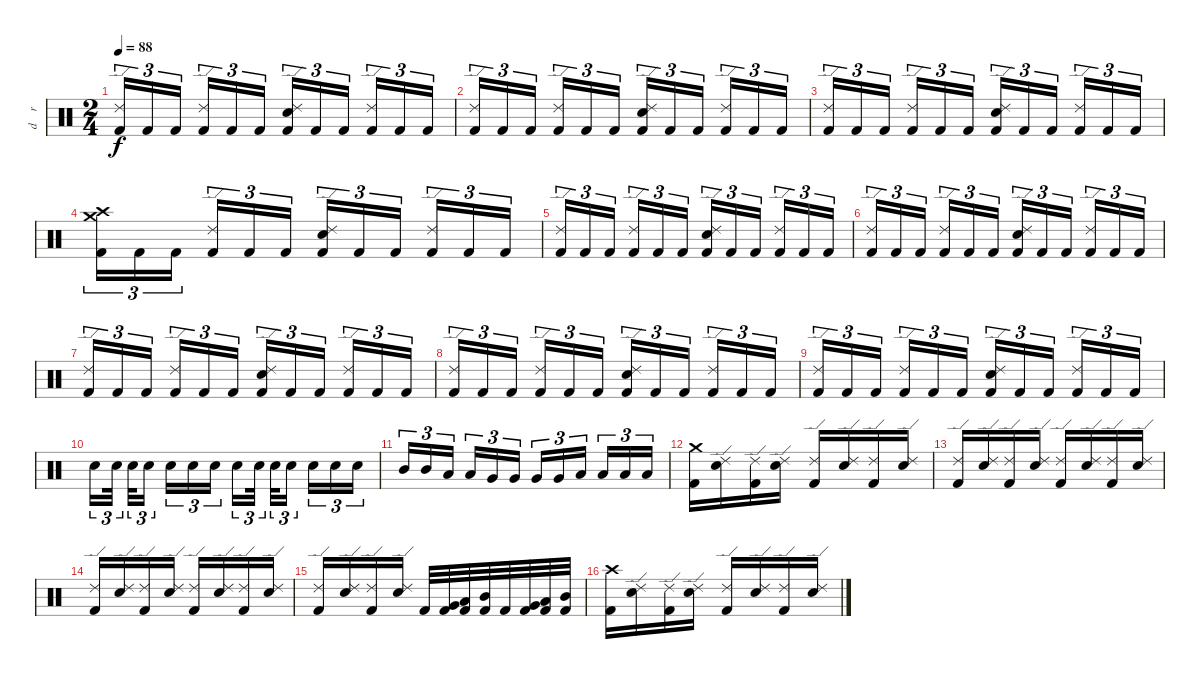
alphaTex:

\track ("d    r     u    m    s" "d    r    ") {instrument percussion}
\staff {score}
\articulation defaults
\ts (2 4)
\tempo 88
\clef neutral
\ks c
("Ride (edge) 2" "Kick (hit) 2").16{tu (3 2) dy f} "Kick (hit) 2".16{tu (3 2)} "Kick (hit) 2".16{tu (3 2) beam splitsecondary} ("Ride (edge) 2" "Kick (hit) 2").16{tu (3 2)} "Kick (hit) 2".16{tu (3 2)} "Kick (hit) 2".16{tu (3 2)} ("Ride (edge) 2" "Electric Snare (hit)" "Kick (hit) 2").16{tu (3 2)} "Kick (hit) 2".16{tu (3 2)} "Kick (hit) 2".16{tu (3 2) beam splitsecondary} ("Ride (edge) 2" "Kick (hit) 2").16{tu (3 2)} "Kick (hit) 2".16{tu (3 2)} "Kick (hit) 2".16{tu (3 2)} |
("Ride (edge) 2" "Kick (hit) 2").16{tu (3 2)} "Kick (hit) 2".16{tu (3 2)} "Kick (hit) 2".16{tu (3 2) beam splitsecondary} ("Ride (edge) 2" "Kick (hit) 2").16{tu (3 2)} "Kick (hit) 2".16{tu (3 2)} "Kick (hit) 2".16{tu (3 2)} ("Ride (edge) 2" "Electric Snare (hit)" "Kick (hit) 2").16{tu (3 2)} "Kick (hit) 2".16{tu (3 2)} "Kick (hit) 2".16{tu (3 2) beam splitsecondary} ("Ride (edge) 2" "Kick (hit) 2").16{tu (3 2)} "Kick (hit) 2".16{tu (3 2)} "Kick (hit) 2".16{tu (3 2)} |
("Ride (edge) 2" "Kick (hit) 2").16{tu (3 2)} "Kick (hit) 2".16{tu (3 2)} "Kick (hit) 2".16{tu (3 2) beam splitsecondary} ("Ride (edge) 2" "Kick (hit) 2").16{tu (3 2)} "Kick (hit) 2".16{tu (3 2)} "Kick (hit) 2".16{tu (3 2)} ("Ride (edge) 2" "Electric Snare (hit)" "Kick (hit) 2").16{tu (3 2)} "Kick (hit) 2".16{tu (3 2)} "Kick (hit) 2".16{tu (3 2) beam splitsecondary} ("Ride (edge) 2" "Kick (hit) 2").16{tu (3 2)} "Kick (hit) 2".16{tu (3 2)} "Kick (hit) 2".16{tu (3 2)} |
("Crash high (hit)" "Crash medium (hit)" "Kick (hit) 2").16{tu (3 2)} "Kick (hit) 2".16{tu (3 2)} "Kick (hit) 2".16{tu (3 2) beam splitsecondary} ("Ride (edge) 2" "Kick (hit) 2").16{tu (3 2)} "Kick (hit) 2".16{tu (3 2)} "Kick (hit) 2".16{tu (3 2)} ("Ride (edge) 2" "Electric Snare (hit)" "Kick (hit) 2").16{tu (3 2)} "Kick (hit) 2".16{tu (3 2)} "Kick (hit) 2".16{tu (3 2) beam splitsecondary} ("Ride (edge) 2" "Kick (hit) 2").16{tu (3 2)} "Kick (hit) 2".16{tu (3 2)} "Kick (hit) 2".16{tu (3 2)} |
("Ride (edge) 2" "Kick (hit) 2").16{tu (3 2)} "Kick (hit) 2".16{tu (3 2)} "Kick (hit) 2".16{tu (3 2) beam splitsecondary} ("Ride (edge) 2" "Kick (hit) 2").16{tu (3 2)} "Kick (hit) 2".16{tu (3 2)} "Kick (hit) 2".16{tu (3 2)} ("Ride (edge) 2" "Electric Snare (hit)" "Kick (hit) 2").16{tu (3 2)} "Kick (hit) 2".16{tu (3 2)} "Kick (hit) 2".16{tu (3 2) beam splitsecondary} ("Ride (edge) 2" "Kick (hit) 2").16{tu (3 2)} "Kick (hit) 2".16{tu (3 2)} "Kick (hit) 2".16{tu (3 2)} |
("Ride (edge) 2" "Kick (hit) 2").16{tu (3 2)} "Kick (hit) 2".16{tu (3 2)} "Kick (hit) 2".16{tu (3 2) beam splitsecondary} ("Ride (edge) 2" "Kick (hit) 2").16{tu (3 2)} "Kick (hit) 2".16{tu (3 2)} "Kick (hit) 2".16{tu (3 2)} ("Ride (edge) 2" "Electric Snare (hit)" "Kick (hit) 2").16{tu (3 2)} "Kick (hit) 2".16{tu (3 2)} "Kick (hit) 2".16{tu (3 2) beam splitsecondary} ("Ride (edge) 2" "Kick (hit) 2").16{tu (3 2)} "Kick (hit) 2".16{tu (3 2)} "Kick (hit) 2".16{tu (3 2)} |
("Ride (edge) 2" "Kick (hit) 2").16{tu (3 2)} "Kick (hit) 2".16{tu (3 2)} "Kick (hit) 2".16{tu (3 2) beam splitsecondary} ("Ride (edge) 2" "Kick (hit) 2").16{tu (3 2)} "Kick (hit) 2".16{tu (3 2)} "Kick (hit) 2".16{tu (3 2)} ("Ride (edge) 2" "Electric Snare (hit)" "Kick (hit) 2").16{tu (3 2)} "Kick (hit) 2".16{tu (3 2)} "Kick (hit) 2".16{tu (3 2) beam splitsecondary} ("Ride (edge) 2" "Kick (hit) 2").16{tu (3 2)} "Kick (hit) 2".16{tu (3 2)} "Kick (hit) 2".16{tu (3 2)} |
("Ride (edge) 2" "Kick (hit) 2").16{tu (3 2)} "Kick (hit) 2".16{tu (3 2)} "Kick (hit) 2".16{tu (3 2) beam splitsecondary} ("Ride (edge) 2" "Kick (hit) 2").16{tu (3 2)} "Kick (hit) 2".16{tu (3 2)} "Kick (hit) 2".16{tu (3 2)} ("Ride (edge) 2" "Electric Snare (hit)" "Kick (hit) 2").16{tu (3 2)} "Kick (hit) 2".16{tu (3 2)} "Kick (hit) 2".16{tu (3 2) beam splitsecondary} ("Ride (edge) 2" "Kick (hit) 2").16{tu (3 2)} "Kick (hit) 2".16{tu (3 2)} "Kick (hit) 2".16{tu (3 2)} |
("Ride (edge) 2" "Kick (hit) 2").16{tu (3 2)} "Kick (hit) 2".16{tu (3 2)} "Kick (hit) 2".16{tu (3 2) beam splitsecondary} ("Ride (edge) 2" "Kick (hit) 2").16{tu (3 2)} "Kick (hit) 2".16{tu (3 2)} "Kick (hit) 2".16{tu (3 2)} ("Ride (edge) 2" "Electric Snare (hit)" "Kick (hit) 2").16{tu (3 2)} "Kick (hit) 2".16{tu (3 2)} "Kick (hit) 2".16{tu (3 2) beam splitsecondary} ("Ride (edge) 2" "Kick (hit) 2").16{tu (3 2)} "Kick (hit) 2".16{tu (3 2)} "Kick (hit) 2".16{tu (3 2)} |
"Electric Snare (hit)".16{tu (3 2)} "Electric Snare (hit)".32{tu (3 2) beam splitsecondary} "Electric Snare (hit)".32{tu (3 2)} "Electric Snare (hit)".16{tu (3 2) beam splitsecondary} "Electric Snare (hit)".16{tu (3 2)} "Electric Snare (hit)".16{tu (3 2)} "Electric Snare (hit)".16{tu (3 2)} "Electric Snare (hit)".16{tu (3 2)} "Electric Snare (hit)".32{tu (3 2) beam splitsecondary} "Electric Snare (hit)".32{tu (3 2)} "Electric Snare (hit)".16{tu (3 2) beam splitsecondary} "Electric Snare (hit)".16{tu (3 2)} "Electric Snare (hit)".16{tu (3 2)} "Electric Snare (hit)".16{tu (3 2)} |
"Mid Tom (hit)".16{tu (3 2)} "Mid Tom (hit)".16{tu (3 2)} "Low Tom (hit)".16{tu (3 2) beam splitsecondary} "Low Tom (hit)".16{tu (3 2)} "Very Low Tom (hit)".16{tu (3 2)} "Very Low Tom (hit)".16{tu (3 2)} "Very Low Tom (hit)".16{tu (3 2)} "Very Low Tom (hit)".16{tu (3 2)} "Low Floor Tom (hit)".16{tu (3 2) beam splitsecondary} "Low Floor Tom (hit)".16{tu (3 2)} "Low Floor Tom (hit)".16{tu (3 2)} "Low Floor Tom (hit)".16{tu (3 2)} |
("Crash medium (hit)" "Kick (hit) 2").16 ("Ride (edge) 2" "Electric Snare (hit)").16 ("Ride (edge) 2" "Kick (hit) 2").16 ("Ride (edge) 2" "Electric Snare (hit)").16 ("Ride (edge) 2" "Kick (hit) 2").16 ("Ride (edge) 2" "Electric Snare (hit)").16 ("Ride (edge) 2" "Kick (hit) 2").16 ("Ride (edge) 2" "Electric Snare (hit)").16 |
("Ride (edge) 2" "Kick (hit) 2").16 ("Ride (edge) 2" "Electric Snare (hit)").16 ("Ride (edge) 2" "Kick (hit) 2").16 ("Ride (edge) 2" "Electric Snare (hit)").16 ("Ride (edge) 2" "Kick (hit) 2").16 ("Ride (edge) 2" "Electric Snare (hit)").16 ("Ride (edge) 2" "Kick (hit) 2").16 ("Ride (edge) 2" "Electric Snare (hit)").16 |
("Ride (edge) 2" "Kick (hit) 2").16 ("Ride (edge) 2" "Electric Snare (hit)").16 ("Ride (edge) 2" "Kick (hit) 2").16 ("Ride (edge) 2" "Electric Snare (hit)").16 ("Ride (edge) 2" "Kick (hit) 2").16 ("Ride (edge) 2" "Electric Snare (hit)").16 ("Ride (edge) 2" "Kick (hit) 2").16 ("Ride (edge) 2" "Electric Snare (hit)").16 |
("Ride (edge) 2" "Kick (hit) 2").16 ("Ride (edge) 2" "Electric Snare (hit)").16 ("Ride (edge) 2" "Kick (hit) 2").16 ("Ride (edge) 2" "Electric Snare (hit)").16 "Kick (hit) 2".32 ("Very Low Tom (hit)" "Kick (hit) 2").32 ("Low Tom (hit)" "Kick (hit) 2").32 ("Mid Tom (hit)" "Kick (hit) 2").32 "Kick (hit) 2".32 ("Very Low Tom (hit)" "Kick (hit) 2").32 ("Low Tom (hit)" "Kick (hit) 2").32 ("Mid Tom (hit)" "Kick (hit) 2").32 |
("Crash high (hit)" "Kick (hit) 2").16 ("Ride (edge) 2" "Electric Snare (hit)").16 ("Ride (edge) 2" "Kick (hit) 2").16 ("Ride (edge) 2" "Electric Snare (hit)").16 ("Ride (edge) 2" "Kick (hit) 2").16 ("Ride (edge) 2" "Electric Snare (hit)").16 ("Ride (edge) 2" "Kick (hit) 2").16 ("Ride (edge) 2" "Electric Snare (hit)").16
